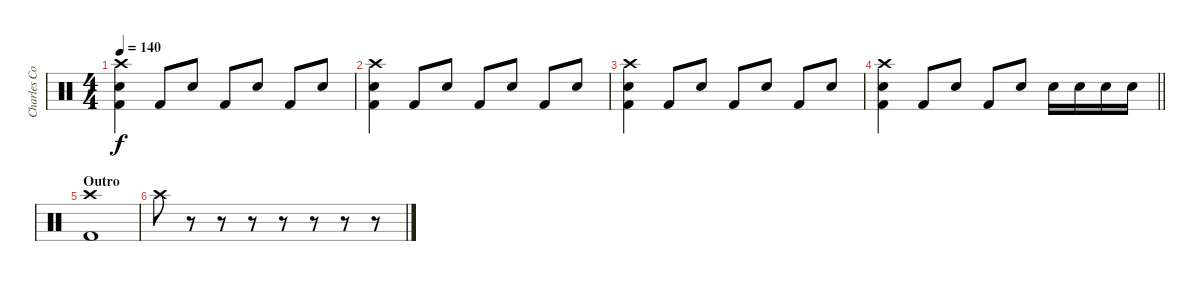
\track ("Charles Comeau" "Charles Co") {instrument percussion}
\staff {score}
\articulation defaults
\ts (4 4)
\tempo 140
\clef neutral
\ks c
("Crash high (hit)" "Snare (hit) 2" "Kick (hit) 2").4{dy f} "Kick (hit) 2".8 "Snare (hit) 2".8 "Kick (hit) 2".8 "Snare (hit) 2".8 "Kick (hit) 2".8 "Snare (hit) 2".8 |
("Crash high (hit)" "Snare (hit) 2" "Kick (hit) 2").4 "Kick (hit) 2".8 "Snare (hit) 2".8 "Kick (hit) 2".8 "Snare (hit) 2".8 "Kick (hit) 2".8 "Snare (hit) 2".8 |
("Crash high (hit)" "Snare (hit) 2" "Kick (hit) 2").4 "Kick (hit) 2".8 "Snare (hit) 2".8 "Kick (hit) 2".8 "Snare (hit) 2".8 "Kick (hit) 2".8 "Snare (hit) 2".8 |
\barLineRight lightlight
("Crash high (hit)" "Snare (hit) 2" "Kick (hit) 2").4 "Kick (hit) 2".8 "Snare (hit) 2".8 "Kick (hit) 2".8 "Snare (hit) 2".8 "Snare (hit) 2".16 "Snare (hit) 2".16 "Snare (hit) 2".16 "Snare (hit) 2".16 |
\section ("" "Outro")
("Crash high (hit)" "Kick (hit) 2").1 |
"Crash high (hit)".8 r.8 r.8 r.8 r.8 r.8 r.8 r.8
